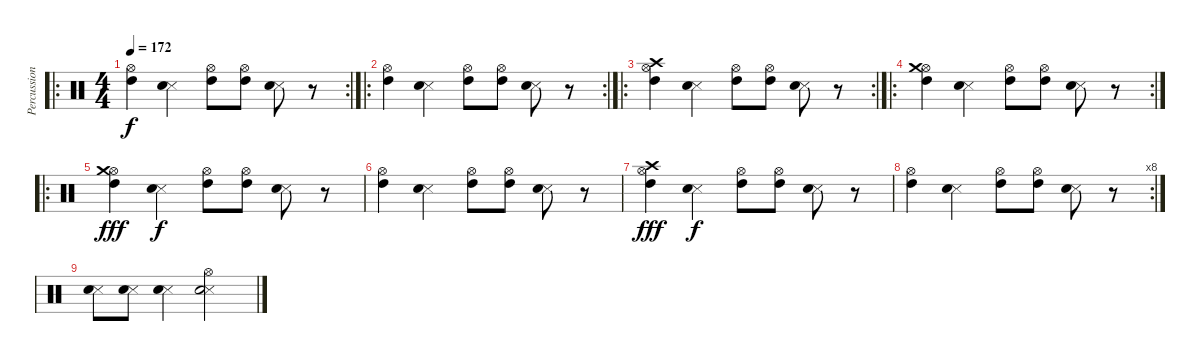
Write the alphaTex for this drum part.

\track ("Percussion" "Percussion") {instrument percussion}
\staff {score}
\articulation defaults
\ro
\rc 2
\ts (4 4)
\tempo 172
\clef neutral
\ks c
("Hi-Hat (open)" "High Tom (hit)").4{dy f} ("Snare (side stick) 3" "Electric Snare (hit)").4 ("Hi-Hat (open)" "High Tom (hit)").8 ("Hi-Hat (open)" "High Tom (hit)").8 ("Snare (side stick) 3" "Electric Snare (hit)").8 r.8 |
\ro
\rc 2
("Hi-Hat (open)" "High Tom (hit)").4 ("Snare (side stick) 3" "Electric Snare (hit)").4 ("Hi-Hat (open)" "High Tom (hit)").8 ("Hi-Hat (open)" "High Tom (hit)").8 ("Snare (side stick) 3" "Electric Snare (hit)").8 r.8 |
\ro
\rc 2
("Hi-Hat (open)" "High Tom (hit)" "Crash high (hit)").4 ("Snare (side stick) 3" "Electric Snare (hit)").4 ("Hi-Hat (open)" "High Tom (hit)").8 ("Hi-Hat (open)" "High Tom (hit)").8 ("Snare (side stick) 3" "Electric Snare (hit)").8 r.8 |
\ro
\rc 2
("Hi-Hat (open)" "High Tom (hit)" "Crash medium (hit)").4 ("Snare (side stick) 3" "Electric Snare (hit)").4 ("Hi-Hat (open)" "High Tom (hit)").8 ("Hi-Hat (open)" "High Tom (hit)").8 ("Snare (side stick) 3" "Electric Snare (hit)").8 r.8 |
\ro
("Hi-Hat (open)" "High Tom (hit)" "Crash medium (hit)").4{dy fff} ("Snare (side stick) 3" "Electric Snare (hit)").4{dy f} ("Hi-Hat (open)" "High Tom (hit)").8 ("Hi-Hat (open)" "High Tom (hit)").8 ("Snare (side stick) 3" "Electric Snare (hit)").8 r.8 |
("Hi-Hat (open)" "High Tom (hit)").4 ("Snare (side stick) 3" "Electric Snare (hit)").4 ("Hi-Hat (open)" "High Tom (hit)").8 ("Hi-Hat (open)" "High Tom (hit)").8 ("Snare (side stick) 3" "Electric Snare (hit)").8 r.8 |
("Hi-Hat (open)" "High Tom (hit)" "Crash high (hit)").4{dy fff} ("Snare (side stick) 3" "Electric Snare (hit)").4{dy f} ("Hi-Hat (open)" "High Tom (hit)").8 ("Hi-Hat (open)" "High Tom (hit)").8 ("Snare (side stick) 3" "Electric Snare (hit)").8 r.8 |
\rc 8
("Hi-Hat (open)" "High Tom (hit)").4 ("Snare (side stick) 3" "Electric Snare (hit)").4 ("Hi-Hat (open)" "High Tom (hit)").8 ("Hi-Hat (open)" "High Tom (hit)").8 ("Snare (side stick) 3" "Electric Snare (hit)").8 r.8 |
("Snare (side stick) 3" "Electric Snare (hit)").8 ("Snare (side stick) 3" "Electric Snare (hit)").8 ("Snare (side stick) 3" "Electric Snare (hit)").4 ("Snare (side stick) 3" "Electric Snare (hit)" "Hi-Hat (open)").2
